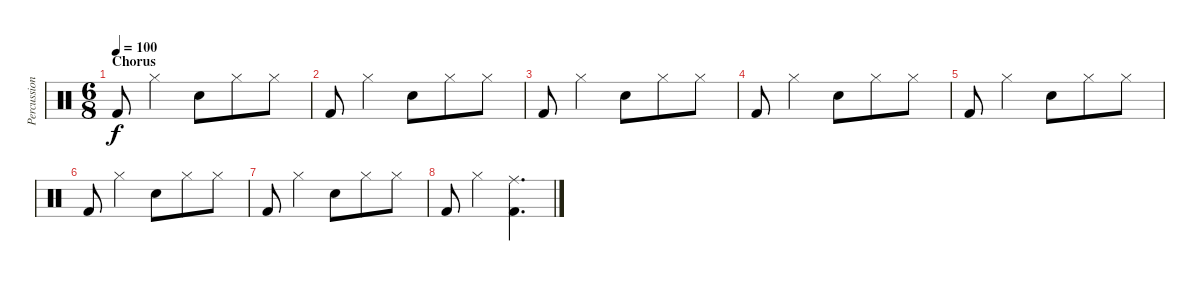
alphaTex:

\track ("Percussion" "Percussion") {instrument percussion}
\staff {score}
\articulation defaults
\ts (6 8)
\section ("" "Chorus")
\tempo 100
\clef neutral
\ks c "Kick (hit) 2".8{dy f} "Hi-Hat (closed)".4 "Snare (hit) 2".8 "Hi-Hat (closed)".8 "Hi-Hat (closed)".8
|
"Kick (hit) 2".8 "Hi-Hat (closed)".4 "Snare (hit) 2".8 "Hi-Hat (closed)".8 "Hi-Hat (closed)".8 |
"Kick (hit) 2".8 "Hi-Hat (closed)".4 "Snare (hit) 2".8 "Hi-Hat (closed)".8 "Hi-Hat (closed)".8 |
"Kick (hit) 2".8 "Hi-Hat (closed)".4 "Snare (hit) 2".8 "Hi-Hat (closed)".8 "Hi-Hat (closed)".8 |
"Kick (hit) 2".8 "Hi-Hat (closed)".4 "Snare (hit) 2".8 "Hi-Hat (closed)".8 "Hi-Hat (closed)".8 |
"Kick (hit) 2".8 "Hi-Hat (closed)".4 "Snare (hit) 2".8 "Hi-Hat (closed)".8 "Hi-Hat (closed)".8 |
"Kick (hit) 2".8 "Hi-Hat (closed)".4 "Snare (hit) 2".8 "Hi-Hat (closed)".8 "Hi-Hat (closed)".8 |
"Kick (hit) 2".8 "Hi-Hat (closed)".4 ("Ride (middle)" "Kick (hit) 2").4{d}
